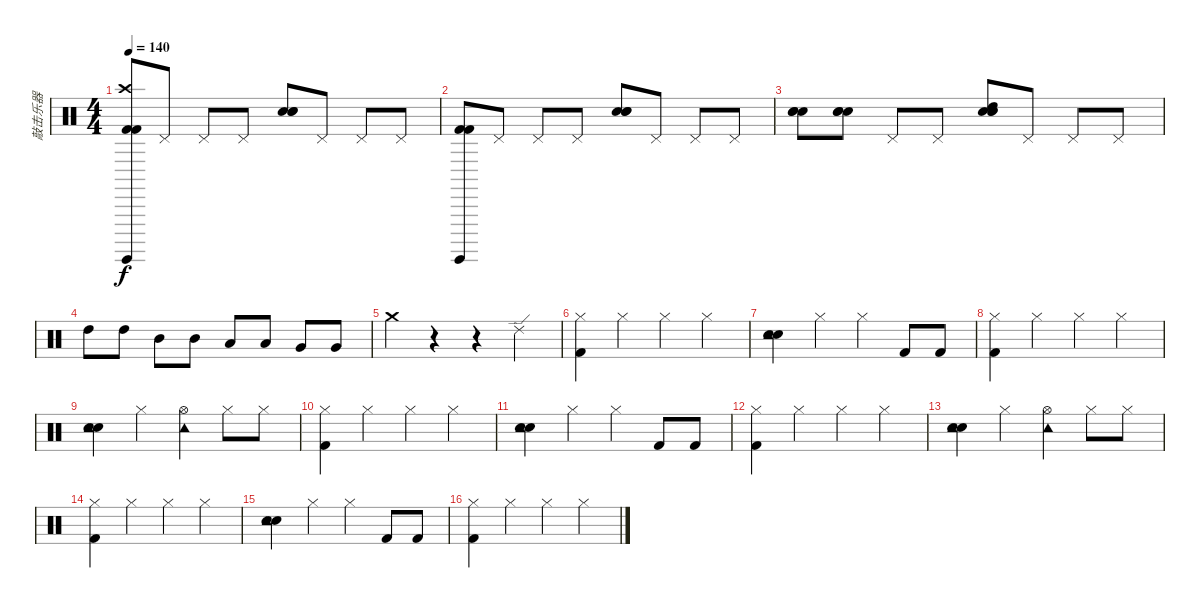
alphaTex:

\track ("敲击乐器" "敲击乐器") {instrument percussion bank 3}
\staff {score}
\articulation defaults
\ts (4 4)
\tempo 140
\clef neutral
\ks c
("Crash high (hit)" "Kick (hit) 2" "Kick (hit) 2" "Surdo (hit)").8{dy f} "Pedal Hi-Hat (hit)".8 "Pedal Hi-Hat (hit)".8 "Pedal Hi-Hat (hit)".8 ("Snare (hit) 2" "Hand Clap (hit)" "Electric Snare (hit)").8 "Pedal Hi-Hat (hit)".8 "Pedal Hi-Hat (hit)".8 "Pedal Hi-Hat (hit)".8 |
("Kick (hit) 2" "Kick (hit) 2" "Surdo (hit)").8 "Pedal Hi-Hat (hit)".8 "Pedal Hi-Hat (hit)".8 "Pedal Hi-Hat (hit)".8 ("Snare (hit) 2" "Hand Clap (hit)" "Electric Snare (hit)").8 "Pedal Hi-Hat (hit)".8 "Pedal Hi-Hat (hit)".8 "Pedal Hi-Hat (hit)".8 |
("Snare (hit) 2" "Hand Clap (hit)" "Electric Snare (hit)").8 ("Hand Clap (hit)" "Electric Snare (hit)" "Snare (hit) 2").8 "Pedal Hi-Hat (hit)".8 "Pedal Hi-Hat (hit)".8 ("High Tom (hit)" "Snare (hit) 2" "Hand Clap (hit)" "Electric Snare (hit)").8 "Pedal Hi-Hat (hit)".8 "Pedal Hi-Hat (hit)".8 "Pedal Hi-Hat (hit)".8 |
"High Tom (hit)".8 "High Tom (hit)".8 "Mid Tom (hit)".8 "Mid Tom (hit)".8 "Low Tom (hit)".8 "Low Tom (hit)".8 "Very Low Tom (hit)".8 "Very Low Tom (hit)".8 |
"Crash medium (hit)".4 r.4 r.4 "Ride (edge) 2".4 |
("Kick (hit) 2" "Hi-Hat (closed)").4 "Hi-Hat (closed)".4 "Hi-Hat (closed)".4 "Hi-Hat (closed)".4 |
("Snare (hit) 2" "Electric Snare (hit)" "Tambourine (hit)").4 "Hi-Hat (closed)".4 "Hi-Hat (closed)".4 "Kick (hit) 2".8 "Kick (hit) 2".8 |
("Kick (hit) 2" "Hi-Hat (closed)").4 "Hi-Hat (closed)".4 "Hi-Hat (closed)".4 "Hi-Hat (closed)".4 |
("Snare (hit) 2" "Electric Snare (hit)" "Tambourine (hit)").4 "Hi-Hat (closed)".4 ("Hi-Hat (open)" "Tambourine (hit)").4 "Hi-Hat (closed)".8 "Hi-Hat (closed)".8 |
("Kick (hit) 2" "Hi-Hat (closed)").4 "Hi-Hat (closed)".4 "Hi-Hat (closed)".4 "Hi-Hat (closed)".4 |
("Snare (hit) 2" "Electric Snare (hit)" "Tambourine (hit)").4 "Hi-Hat (closed)".4 "Hi-Hat (closed)".4 "Kick (hit) 2".8 "Kick (hit) 2".8 |
("Kick (hit) 2" "Hi-Hat (closed)").4 "Hi-Hat (closed)".4 "Hi-Hat (closed)".4 "Hi-Hat (closed)".4 |
("Snare (hit) 2" "Electric Snare (hit)" "Tambourine (hit)").4 "Hi-Hat (closed)".4 ("Hi-Hat (open)" "Tambourine (hit)").4 "Hi-Hat (closed)".8 "Hi-Hat (closed)".8 |
("Kick (hit) 2" "Hi-Hat (closed)").4 "Hi-Hat (closed)".4 "Hi-Hat (closed)".4 "Hi-Hat (closed)".4 |
("Snare (hit) 2" "Electric Snare (hit)" "Tambourine (hit)").4 "Hi-Hat (closed)".4 "Hi-Hat (closed)".4 "Kick (hit) 2".8 "Kick (hit) 2".8 |
("Kick (hit) 2" "Hi-Hat (closed)").4 "Hi-Hat (closed)".4 "Hi-Hat (closed)".4 "Hi-Hat (closed)".4
